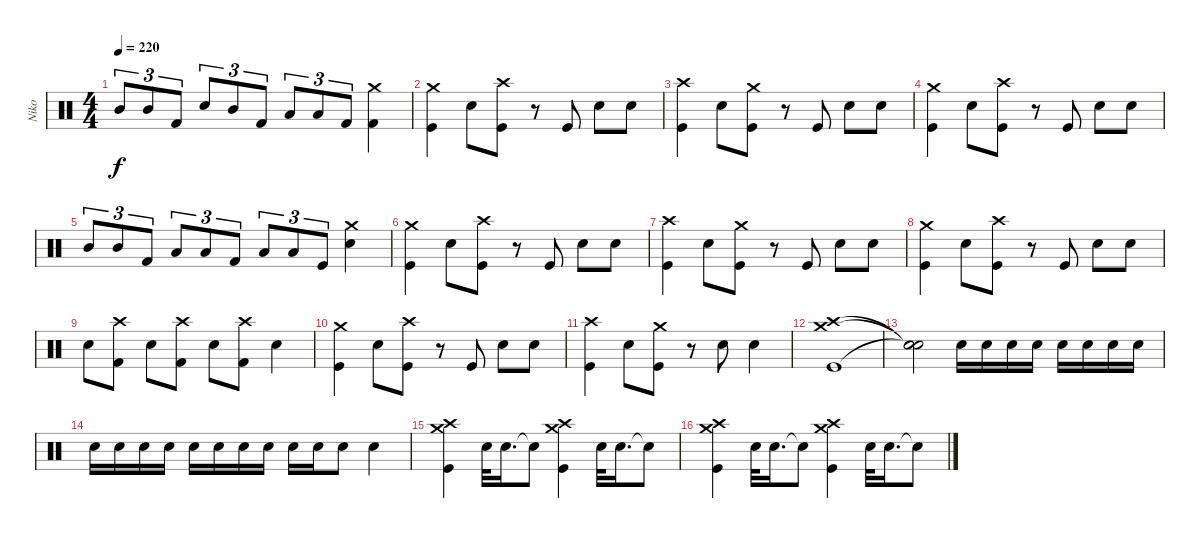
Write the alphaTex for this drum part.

\track ("Niko" "Niko") {instrument percussion}
\staff {score}
\articulation defaults
\ts (4 4)
\tempo 220
\clef neutral
\ks c "Mid Tom (hit)".8{tu (3 2) dy f} "Mid Tom (hit)".8{tu (3 2)} "Kick (hit) 2".8{tu (3 2)} "Snare (hit) 2".8{tu (3 2)} "Mid Tom (hit)".8{tu (3 2)} "Kick (hit) 2".8{tu (3 2)} "Low Tom (hit)".8{tu (3 2)} "Low Tom (hit)".8{tu (3 2)} "Kick (hit) 2".8{tu (3 2)}
("Crash medium (hit)" "Kick (hit) 2").4 |
("Crash medium (hit)" "Kick (hit)").4 "Snare (hit) 2".8 ("Crash high (hit)" "Kick (hit)").8 r.8 "Kick (hit)".8 "Snare (hit) 2".8 "Snare (hit) 2".8 |
("Crash high (hit)" "Kick (hit)").4 "Snare (hit) 2".8 ("Crash medium (hit)" "Kick (hit)").8 r.8 "Kick (hit)".8 "Snare (hit) 2".8 "Snare (hit) 2".8 |
("Crash medium (hit)" "Kick (hit)").4 "Snare (hit) 2".8 ("Crash high (hit)" "Kick (hit)").8 r.8 "Kick (hit)".8 "Snare (hit) 2".8 "Snare (hit) 2".8 |
"Mid Tom (hit)".8{tu (3 2)} "Mid Tom (hit)".8{tu (3 2)} "Kick (hit) 2".8{tu (3 2)} "Low Tom (hit)".8{tu (3 2)} "Low Tom (hit)".8{tu (3 2)} "Kick (hit) 2".8{tu (3 2)} "Low Floor Tom (hit)".8{tu (3 2)} "Low Floor Tom (hit)".8{tu (3 2)} "Kick (hit)".8{tu (3 2)} ("Crash medium (hit)" "Snare (hit) 2").4 |
("Crash medium (hit)" "Kick (hit)").4 "Snare (hit) 2".8 ("Crash high (hit)" "Kick (hit)").8 r.8 "Kick (hit)".8 "Snare (hit) 2".8 "Snare (hit) 2".8 |
("Crash high (hit)" "Kick (hit)").4 "Snare (hit) 2".8 ("Crash medium (hit)" "Kick (hit)").8 r.8 "Kick (hit)".8 "Snare (hit) 2".8 "Snare (hit) 2".8 |
("Crash medium (hit)" "Kick (hit)").4 "Snare (hit) 2".8 ("Crash high (hit)" "Kick (hit)").8 r.8 "Kick (hit)".8 "Snare (hit) 2".8 "Snare (hit) 2".8 |
"Snare (hit) 2".8 ("Crash high (hit)" "Kick (hit) 2").8 "Snare (hit) 2".8 ("Crash high (hit)" "Kick (hit) 2").8 "Snare (hit) 2".8 ("Crash high (hit)" "Kick (hit) 2").8 "Snare (hit) 2".4 |
("Crash medium (hit)" "Kick (hit)").4 "Snare (hit) 2".8 ("Crash high (hit)" "Kick (hit)").8 r.8 "Kick (hit)".8 "Snare (hit) 2".8 "Snare (hit) 2".8 |
("Crash high (hit)" "Kick (hit)").4 "Snare (hit) 2".8 ("Crash medium (hit)" "Kick (hit)").8 r.8 "Snare (hit) 2".8 "Snare (hit) 2".4 |
("Crash medium (hit)" "Crash high (hit)" "Kick (hit)").1 |
("Snare (hit)"{t} "Snare (hit)"{t} "Snare (hit)"{t}).2 "Snare (hit) 2".16 "Snare (hit) 2".16 "Snare (hit) 2".16 "Snare (hit) 2".16 "Snare (hit) 2".16 "Snare (hit) 2".16 "Snare (hit) 2".16 "Snare (hit) 2".16 |
"Snare (hit) 2".16 "Snare (hit) 2".16 "Snare (hit) 2".16 "Snare (hit) 2".16 "Snare (hit) 2".16 "Snare (hit) 2".16 "Snare (hit) 2".16 "Snare (hit) 2".16 "Snare (hit) 2".16 "Snare (hit) 2".16 "Snare (hit) 2".8 "Snare (hit) 2".4 |
("Crash medium (hit)" "Crash high (hit)" "Kick (hit)").4 "Snare (hit) 2".32 "Snare (hit) 2".16{d} "Snare (hit)"{t}.8 ("Crash medium (hit)" "Crash high (hit)" "Kick (hit)").4 "Snare (hit) 2".32 "Snare (hit) 2".16{d} "Snare (hit)"{t}.8 |
("Crash medium (hit)" "Crash high (hit)" "Kick (hit)").4 "Snare (hit) 2".32 "Snare (hit) 2".16{d} "Snare (hit)"{t}.8 ("Crash medium (hit)" "Crash high (hit)" "Kick (hit)").4 "Snare (hit) 2".32 "Snare (hit) 2".16{d} "Snare (hit)"{t}.8
